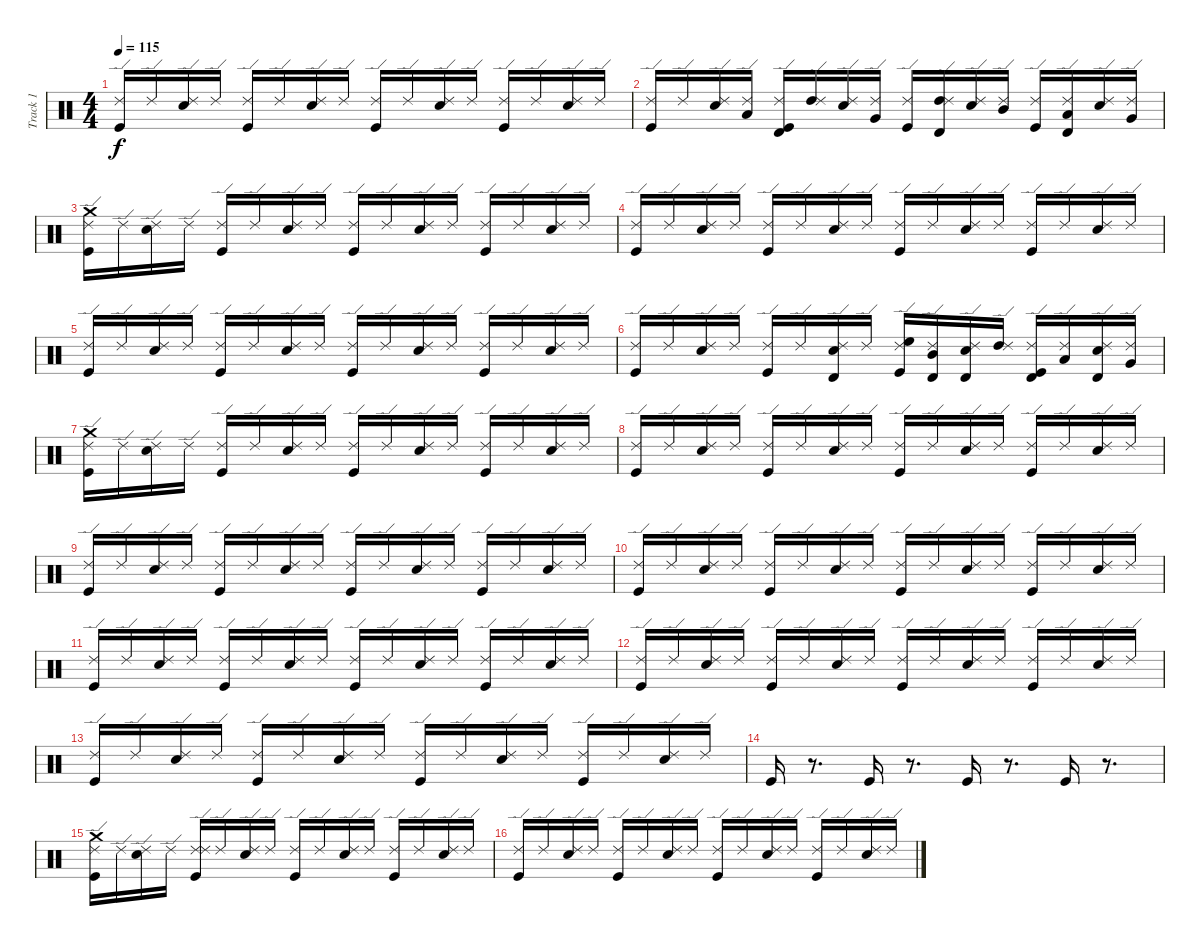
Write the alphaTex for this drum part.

\track ("Track 1" "Track 1") {instrument percussion}
\staff {score}
\articulation defaults
\ts (4 4)
\tempo 115
\clef neutral
\ks c
("Kick (hit)" "Ride (edge) 2").16{dy f} "Ride (edge) 2".16 ("Electric Snare (hit)" "Ride (edge) 2").16 "Ride (edge) 2".16 ("Kick (hit)" "Ride (edge) 2").16 "Ride (edge) 2".16 ("Electric Snare (hit)" "Ride (edge) 2").16 "Ride (edge) 2".16 ("Kick (hit)" "Ride (edge) 2").16 "Ride (edge) 2".16 ("Electric Snare (hit)" "Ride (edge) 2").16 "Ride (edge) 2".16 ("Kick (hit)" "Ride (edge) 2").16 "Ride (edge) 2".16 ("Electric Snare (hit)" "Ride (edge) 2").16 "Ride (edge) 2".16 |
("Kick (hit)" "Ride (edge) 2").16 "Ride (edge) 2".16 ("Electric Snare (hit)" "Ride (edge) 2").16 ("Low Tom (hit)" "Ride (edge) 2").16 ("Kick (hit)" "Ride (edge) 2" "Timbale high (hit)").16 ("High Tom (hit)" "Ride (edge) 2").16 ("Electric Snare (hit)" "Ride (edge) 2").16 ("Very Low Tom (hit)" "Ride (edge) 2").16 ("Kick (hit)" "Ride (edge) 2").16 ("High Tom (hit)" "Ride (edge) 2" "Timbale high (hit)").16 ("Electric Snare (hit)" "Ride (edge) 2").16 ("Mid Tom (hit)" "Ride (edge) 2").16 ("Kick (hit)" "Ride (edge) 2").16 ("Low Tom (hit)" "Ride (edge) 2" "Timbale high (hit)").16 ("Electric Snare (hit)" "Ride (edge) 2").16 ("Very Low Tom (hit)" "Ride (edge) 2").16 |
("Kick (hit)" "Crash medium (hit)" "Ride (edge) 2").16 "Ride (edge) 2".16 ("Electric Snare (hit)" "Ride (edge) 2").16 "Ride (edge) 2".16 ("Kick (hit)" "Ride (edge) 2").16 "Ride (edge) 2".16 ("Electric Snare (hit)" "Ride (edge) 2").16 "Ride (edge) 2".16 ("Kick (hit)" "Ride (edge) 2").16 "Ride (edge) 2".16 ("Electric Snare (hit)" "Ride (edge) 2").16 "Ride (edge) 2".16 ("Kick (hit)" "Ride (edge) 2").16 "Ride (edge) 2".16 ("Electric Snare (hit)" "Ride (edge) 2").16 "Ride (edge) 2".16 |
("Kick (hit)" "Ride (edge) 2").16 "Ride (edge) 2".16 ("Electric Snare (hit)" "Ride (edge) 2").16 "Ride (edge) 2".16 ("Kick (hit)" "Ride (edge) 2").16 "Ride (edge) 2".16 ("Electric Snare (hit)" "Ride (edge) 2").16 "Ride (edge) 2".16 ("Kick (hit)" "Ride (edge) 2").16 "Ride (edge) 2".16 ("Electric Snare (hit)" "Ride (edge) 2").16 "Ride (edge) 2".16 ("Kick (hit)" "Ride (edge) 2").16 "Ride (edge) 2".16 ("Electric Snare (hit)" "Ride (edge) 2").16 "Ride (edge) 2".16 |
("Kick (hit)" "Ride (edge) 2").16 "Ride (edge) 2".16 ("Electric Snare (hit)" "Ride (edge) 2").16 "Ride (edge) 2".16 ("Kick (hit)" "Ride (edge) 2").16 "Ride (edge) 2".16 ("Electric Snare (hit)" "Ride (edge) 2").16 "Ride (edge) 2".16 ("Kick (hit)" "Ride (edge) 2").16 "Ride (edge) 2".16 ("Electric Snare (hit)" "Ride (edge) 2").16 "Ride (edge) 2".16 ("Kick (hit)" "Ride (edge) 2").16 "Ride (edge) 2".16 ("Electric Snare (hit)" "Ride (edge) 2").16 "Ride (edge) 2".16 |
("Kick (hit)" "Ride (edge) 2").16 "Ride (edge) 2".16 ("Electric Snare (hit)" "Ride (edge) 2").16 "Ride (edge) 2".16 ("Kick (hit)" "Ride (edge) 2").16 "Ride (edge) 2".16 ("Electric Snare (hit)" "Ride (edge) 2" "Timbale high (hit)").16 "Ride (edge) 2".16 ("Kick (hit)" "High Floor Tom (hit)" "Ride (edge) 2").16 ("Mid Tom (hit)" "Ride (edge) 2" "Timbale high (hit)").16 ("Electric Snare (hit)" "Ride (edge) 2" "Timbale high (hit)").16 ("High Tom (hit)" "Ride (edge) 2").16 ("Kick (hit)" "Ride (edge) 2" "Timbale high (hit)").16 ("Low Tom (hit)" "Ride (edge) 2").16 ("Electric Snare (hit)" "Ride (edge) 2" "Timbale high (hit)").16 ("Very Low Tom (hit)" "Ride (edge) 2").16 |
("Kick (hit)" "Crash medium (hit)" "Ride (edge) 2").16 "Ride (edge) 2".16 ("Electric Snare (hit)" "Ride (edge) 2").16 "Ride (edge) 2".16 ("Kick (hit)" "Ride (edge) 2").16 "Ride (edge) 2".16 ("Electric Snare (hit)" "Ride (edge) 2").16 "Ride (edge) 2".16 ("Kick (hit)" "Ride (edge) 2").16 "Ride (edge) 2".16 ("Electric Snare (hit)" "Ride (edge) 2").16 "Ride (edge) 2".16 ("Kick (hit)" "Ride (edge) 2").16 "Ride (edge) 2".16 ("Electric Snare (hit)" "Ride (edge) 2").16 "Ride (edge) 2".16 |
("Kick (hit)" "Ride (edge) 2").16 "Ride (edge) 2".16 ("Electric Snare (hit)" "Ride (edge) 2").16 "Ride (edge) 2".16 ("Kick (hit)" "Ride (edge) 2").16 "Ride (edge) 2".16 ("Electric Snare (hit)" "Ride (edge) 2").16 "Ride (edge) 2".16 ("Kick (hit)" "Ride (edge) 2").16 "Ride (edge) 2".16 ("Electric Snare (hit)" "Ride (edge) 2").16 "Ride (edge) 2".16 ("Kick (hit)" "Ride (edge) 2").16 "Ride (edge) 2".16 ("Electric Snare (hit)" "Ride (edge) 2").16 "Ride (edge) 2".16 |
("Kick (hit)" "Ride (edge) 2").16 "Ride (edge) 2".16 ("Electric Snare (hit)" "Ride (edge) 2").16 "Ride (edge) 2".16 ("Kick (hit)" "Ride (edge) 2").16 "Ride (edge) 2".16 ("Electric Snare (hit)" "Ride (edge) 2").16 "Ride (edge) 2".16 ("Kick (hit)" "Ride (edge) 2").16 "Ride (edge) 2".16 ("Electric Snare (hit)" "Ride (edge) 2").16 "Ride (edge) 2".16 ("Kick (hit)" "Ride (edge) 2").16 "Ride (edge) 2".16 ("Electric Snare (hit)" "Ride (edge) 2").16 "Ride (edge) 2".16 |
("Kick (hit)" "Ride (edge) 2").16 "Ride (edge) 2".16 ("Electric Snare (hit)" "Ride (edge) 2").16 "Ride (edge) 2".16 ("Kick (hit)" "Ride (edge) 2").16 "Ride (edge) 2".16 ("Electric Snare (hit)" "Ride (edge) 2").16 "Ride (edge) 2".16 ("Kick (hit)" "Ride (edge) 2").16 "Ride (edge) 2".16 ("Electric Snare (hit)" "Ride (edge) 2").16 "Ride (edge) 2".16 ("Kick (hit)" "Ride (edge) 2").16 "Ride (edge) 2".16 ("Electric Snare (hit)" "Ride (edge) 2").16 "Ride (edge) 2".16 |
("Kick (hit)" "Ride (edge) 2").16 "Ride (edge) 2".16 ("Electric Snare (hit)" "Ride (edge) 2").16 "Ride (edge) 2".16 ("Kick (hit)" "Ride (edge) 2").16 "Ride (edge) 2".16 ("Electric Snare (hit)" "Ride (edge) 2").16 "Ride (edge) 2".16 ("Kick (hit)" "Ride (edge) 2").16 "Ride (edge) 2".16 ("Electric Snare (hit)" "Ride (edge) 2").16 "Ride (edge) 2".16 ("Kick (hit)" "Ride (edge) 2").16 "Ride (edge) 2".16 ("Electric Snare (hit)" "Ride (edge) 2").16 "Ride (edge) 2".16 |
("Kick (hit)" "Ride (edge) 2").16 "Ride (edge) 2".16 ("Electric Snare (hit)" "Ride (edge) 2").16 "Ride (edge) 2".16 ("Kick (hit)" "Ride (edge) 2").16 "Ride (edge) 2".16 ("Electric Snare (hit)" "Ride (edge) 2").16 "Ride (edge) 2".16 ("Kick (hit)" "Ride (edge) 2").16 "Ride (edge) 2".16 ("Electric Snare (hit)" "Ride (edge) 2").16 "Ride (edge) 2".16 ("Kick (hit)" "Ride (edge) 2").16 "Ride (edge) 2".16 ("Electric Snare (hit)" "Ride (edge) 2").16 "Ride (edge) 2".16 |
("Kick (hit)" "Ride (edge) 2").16 "Ride (edge) 2".16 ("Electric Snare (hit)" "Ride (edge) 2").16 "Ride (edge) 2".16 ("Kick (hit)" "Ride (edge) 2").16 "Ride (edge) 2".16 ("Electric Snare (hit)" "Ride (edge) 2").16 "Ride (edge) 2".16 ("Kick (hit)" "Ride (edge) 2").16 "Ride (edge) 2".16 ("Electric Snare (hit)" "Ride (edge) 2").16 "Ride (edge) 2".16 ("Kick (hit)" "Ride (edge) 2").16 "Ride (edge) 2".16 ("Electric Snare (hit)" "Ride (edge) 2").16 "Ride (edge) 2".16 |
"Kick (hit)".16 r.8{d} "Kick (hit)".16 r.8{d} "Kick (hit)".16 r.8{d} "Kick (hit)".16 r.8{d} |
("Kick (hit)" "Crash medium (hit)" "Ride (edge) 2").16 "Ride (edge) 2".16 ("Electric Snare (hit)" "Ride (edge) 2").16 "Ride (edge) 2".16 ("Kick (hit)" "Ride (edge) 2" "Ride (edge) 2").16 "Ride (edge) 2".16 ("Electric Snare (hit)" "Ride (edge) 2").16 "Ride (edge) 2".16 ("Kick (hit)" "Ride (edge) 2").16 "Ride (edge) 2".16 ("Electric Snare (hit)" "Ride (edge) 2").16 "Ride (edge) 2".16 ("Kick (hit)" "Ride (edge) 2").16 "Ride (edge) 2".16 ("Electric Snare (hit)" "Ride (edge) 2").16 "Ride (edge) 2".16 |
("Kick (hit)" "Ride (edge) 2").16 "Ride (edge) 2".16 ("Electric Snare (hit)" "Ride (edge) 2").16 "Ride (edge) 2".16 ("Kick (hit)" "Ride (edge) 2").16 "Ride (edge) 2".16 ("Electric Snare (hit)" "Ride (edge) 2").16 "Ride (edge) 2".16 ("Kick (hit)" "Ride (edge) 2").16 "Ride (edge) 2".16 ("Electric Snare (hit)" "Ride (edge) 2").16 "Ride (edge) 2".16 ("Kick (hit)" "Ride (edge) 2").16 "Ride (edge) 2".16 ("Electric Snare (hit)" "Ride (edge) 2").16 "Ride (edge) 2".16
